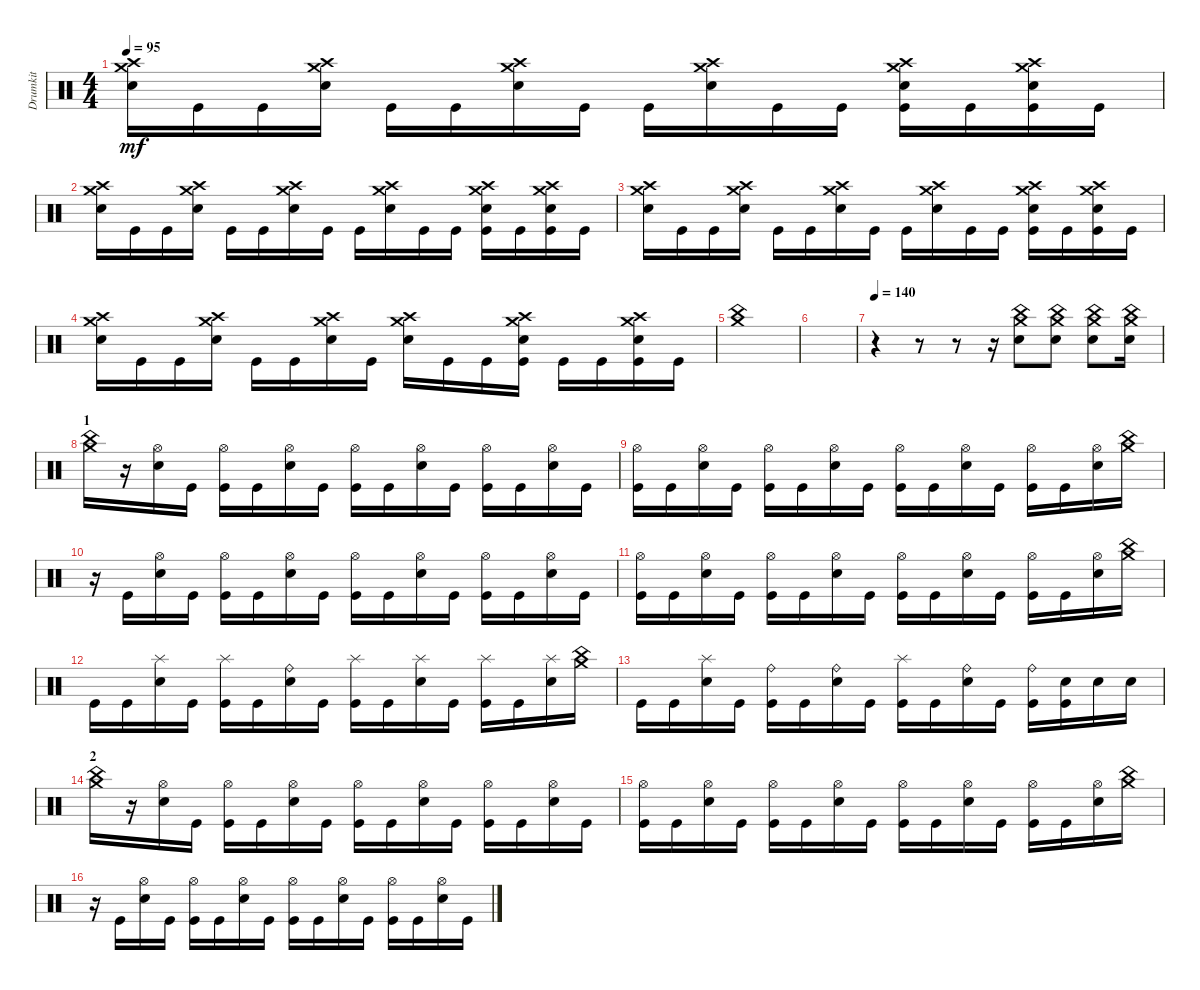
\track ("Drumkit" "Drumkit") {instrument percussion}
\staff {score}
\articulation defaults
\ts (4 4)
\tempo 95
\clef neutral
\ks c
("Crash high (hit)" "Snare (hit) 2" "Crash medium (hit)").16{dy mf} "Kick (hit)".16 "Kick (hit)".16 ("Crash high (hit)" "Snare (hit) 2" "Crash medium (hit)").16 "Kick (hit)".16 "Kick (hit)".16 ("Crash high (hit)" "Snare (hit) 2" "Crash medium (hit)").16 "Kick (hit)".16 "Kick (hit)".16 ("Crash high (hit)" "Snare (hit) 2" "Crash medium (hit)").16 "Kick (hit)".16 "Kick (hit)".16 ("Kick (hit)" "Crash high (hit)" "Snare (hit) 2" "Crash medium (hit)").16 "Kick (hit)".16 ("Kick (hit)" "Crash high (hit)" "Snare (hit) 2" "Crash medium (hit)").16 "Kick (hit)".16 |
("Crash high (hit)" "Snare (hit) 2" "Crash medium (hit)").16 "Kick (hit)".16 "Kick (hit)".16 ("Crash high (hit)" "Snare (hit) 2" "Crash medium (hit)").16 "Kick (hit)".16 "Kick (hit)".16 ("Crash high (hit)" "Snare (hit) 2" "Crash medium (hit)").16 "Kick (hit)".16 "Kick (hit)".16 ("Crash high (hit)" "Snare (hit) 2" "Crash medium (hit)").16 "Kick (hit)".16 "Kick (hit)".16 ("Kick (hit)" "Crash high (hit)" "Snare (hit) 2" "Crash medium (hit)").16 "Kick (hit)".16 ("Kick (hit)" "Crash high (hit)" "Snare (hit) 2" "Crash medium (hit)").16 "Kick (hit)".16 |
("Crash high (hit)" "Snare (hit) 2" "Crash medium (hit)").16 "Kick (hit)".16 "Kick (hit)".16 ("Crash high (hit)" "Snare (hit) 2" "Crash medium (hit)").16 "Kick (hit)".16 "Kick (hit)".16 ("Crash high (hit)" "Snare (hit) 2" "Crash medium (hit)").16 "Kick (hit)".16 "Kick (hit)".16 ("Crash high (hit)" "Snare (hit) 2" "Crash medium (hit)").16 "Kick (hit)".16 "Kick (hit)".16 ("Kick (hit)" "Crash high (hit)" "Snare (hit) 2" "Crash medium (hit)").16 "Kick (hit)".16 ("Kick (hit)" "Crash high (hit)" "Snare (hit) 2" "Crash medium (hit)").16 "Kick (hit)".16 |
("Crash high (hit)" "Snare (hit) 2" "Crash medium (hit)").16 "Kick (hit)".16 "Kick (hit)".16 ("Crash high (hit)" "Snare (hit) 2" "Crash medium (hit)").16 "Kick (hit)".16 "Kick (hit)".16 ("Crash high (hit)" "Snare (hit) 2" "Crash medium (hit)").16 "Kick (hit)".16 ("Crash high (hit)" "Snare (hit) 2" "Crash medium (hit)").16 "Kick (hit)".16 "Kick (hit)".16 ("Kick (hit)" "Crash high (hit)" "Snare (hit) 2" "Crash medium (hit)").16 "Kick (hit)".16 "Kick (hit)".16 ("Kick (hit)" "Crash high (hit)" "Snare (hit) 2" "Crash medium (hit)").16 "Kick (hit)".16 |
("China (hit)" "Crash medium (hit)").1 |
|
\tempo 140
r.4 r.8 r.8 r.16 ("China (hit)" "Crash medium (hit)" "Snare (hit) 2").8 ("Crash medium (hit)" "China (hit)" "Snare (hit) 2").8 ("Crash medium (hit)" "China (hit)" "Snare (hit) 2").8 ("Crash medium (hit)" "China (hit)" "Snare (hit) 2").16 |
\section ("" "1")
("China (hit)" "Crash medium (hit)").16 r.16 ("Snare (hit) 2" "Hi-Hat (open)").16 "Kick (hit)".16 ("Kick (hit)" "Hi-Hat (open)").16 "Kick (hit)".16 ("Snare (hit) 2" "Hi-Hat (open)").16 "Kick (hit)".16 ("Kick (hit)" "Hi-Hat (open)").16 "Kick (hit)".16 ("Snare (hit) 2" "Hi-Hat (open)").16 "Kick (hit)".16 ("Kick (hit)" "Hi-Hat (open)").16 "Kick (hit)".16 ("Snare (hit) 2" "Hi-Hat (open)").16 "Kick (hit)".16 |
("Kick (hit)" "Hi-Hat (open)").16 "Kick (hit)".16 ("Snare (hit) 2" "Hi-Hat (open)").16 "Kick (hit)".16 ("Kick (hit)" "Hi-Hat (open)").16 "Kick (hit)".16 ("Snare (hit) 2" "Hi-Hat (open)").16 "Kick (hit)".16 ("Kick (hit)" "Hi-Hat (open)").16 "Kick (hit)".16 ("Snare (hit) 2" "Hi-Hat (open)").16 "Kick (hit)".16 ("Kick (hit)" "Hi-Hat (open)").16 "Kick (hit)".16 ("Snare (hit) 2" "Hi-Hat (open)").16 ("China (hit)" "Crash medium (hit)").16 |
r.16 "Kick (hit)".16 ("Snare (hit) 2" "Hi-Hat (open)").16 "Kick (hit)".16 ("Kick (hit)" "Hi-Hat (open)").16 "Kick (hit)".16 ("Snare (hit) 2" "Hi-Hat (open)").16 "Kick (hit)".16 ("Kick (hit)" "Hi-Hat (open)").16 "Kick (hit)".16 ("Snare (hit) 2" "Hi-Hat (open)").16 "Kick (hit)".16 ("Kick (hit)" "Hi-Hat (open)").16 "Kick (hit)".16 ("Snare (hit) 2" "Hi-Hat (open)").16 "Kick (hit)".16 |
("Kick (hit)" "Hi-Hat (open)").16 "Kick (hit)".16 ("Snare (hit) 2" "Hi-Hat (open)").16 "Kick (hit)".16 ("Kick (hit)" "Hi-Hat (open)").16 "Kick (hit)".16 ("Snare (hit) 2" "Hi-Hat (open)").16 "Kick (hit)".16 ("Kick (hit)" "Hi-Hat (open)").16 "Kick (hit)".16 ("Snare (hit) 2" "Hi-Hat (open)").16 "Kick (hit)".16 ("Kick (hit)" "Hi-Hat (open)").16 "Kick (hit)".16 ("Snare (hit) 2" "Hi-Hat (open)").16 ("China (hit)" "Crash medium (hit)").16 |
"Kick (hit)".16 "Kick (hit)".16 ("Snare (hit) 2" "Splash (hit)").16 "Kick (hit)".16 ("Kick (hit)" "Splash (hit)").16 "Kick (hit)".16 ("Snare (hit) 2" "Ride (bell)").16 "Kick (hit)".16 ("Kick (hit)" "Splash (hit)").16 "Kick (hit)".16 ("Snare (hit) 2" "Splash (hit)").16 "Kick (hit)".16 ("Kick (hit)" "Splash (hit)").16 "Kick (hit)".16 ("Snare (hit) 2" "Splash (hit)").16 ("China (hit)" "Crash medium (hit)").16 |
"Kick (hit)".16 "Kick (hit)".16 ("Snare (hit) 2" "Splash (hit)").16 "Kick (hit)".16 ("Kick (hit)" "Ride (bell)").16 "Kick (hit)".16 ("Snare (hit) 2" "Ride (bell)").16 "Kick (hit)".16 ("Kick (hit)" "Splash (hit)").16 "Kick (hit)".16 ("Snare (hit) 2" "Ride (bell)").16 "Kick (hit)".16 ("Kick (hit)" "Ride (bell)").16 ("Kick (hit)" "Snare (hit) 2").16 "Snare (hit) 2".16 "Snare (hit) 2".16 |
\section ("" "2")
("China (hit)" "Crash medium (hit)").16 r.16 ("Snare (hit) 2" "Hi-Hat (open)").16 "Kick (hit)".16 ("Kick (hit)" "Hi-Hat (open)").16 "Kick (hit)".16 ("Snare (hit) 2" "Hi-Hat (open)").16 "Kick (hit)".16 ("Kick (hit)" "Hi-Hat (open)").16 "Kick (hit)".16 ("Snare (hit) 2" "Hi-Hat (open)").16 "Kick (hit)".16 ("Kick (hit)" "Hi-Hat (open)").16 "Kick (hit)".16 ("Snare (hit) 2" "Hi-Hat (open)").16 "Kick (hit)".16 |
("Kick (hit)" "Hi-Hat (open)").16 "Kick (hit)".16 ("Snare (hit) 2" "Hi-Hat (open)").16 "Kick (hit)".16 ("Kick (hit)" "Hi-Hat (open)").16 "Kick (hit)".16 ("Snare (hit) 2" "Hi-Hat (open)").16 "Kick (hit)".16 ("Kick (hit)" "Hi-Hat (open)").16 "Kick (hit)".16 ("Snare (hit) 2" "Hi-Hat (open)").16 "Kick (hit)".16 ("Kick (hit)" "Hi-Hat (open)").16 "Kick (hit)".16 ("Snare (hit) 2" "Hi-Hat (open)").16 ("China (hit)" "Crash medium (hit)").16 |
r.16 "Kick (hit)".16 ("Snare (hit) 2" "Hi-Hat (open)").16 "Kick (hit)".16 ("Kick (hit)" "Hi-Hat (open)").16 "Kick (hit)".16 ("Snare (hit) 2" "Hi-Hat (open)").16 "Kick (hit)".16 ("Kick (hit)" "Hi-Hat (open)").16 "Kick (hit)".16 ("Snare (hit) 2" "Hi-Hat (open)").16 "Kick (hit)".16 ("Kick (hit)" "Hi-Hat (open)").16 "Kick (hit)".16 ("Snare (hit) 2" "Hi-Hat (open)").16 "Kick (hit)".16
